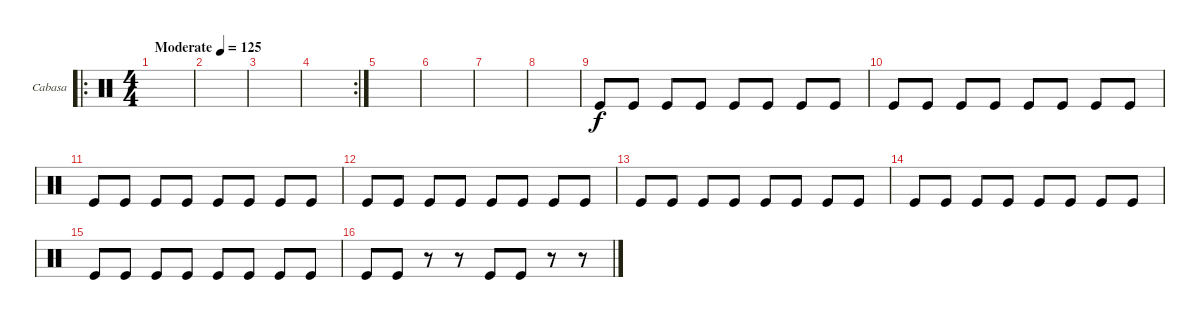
\bracketExtendMode groupsimilarinstruments
\firstSystemTrackNameOrientation horizontal
\otherSystemsTrackNameOrientation horizontal
\track ("Cabasa" "Cabasa") {instrument percussion}
\staff {score}
\articulation defaults
\ro
\ts (4 4)
\beaming (8 2 2 2 2)
\tempo (125 "Moderate")
\clef neutral
\scale
0.502222
\ks c
|
\scale
0.248889 |
\scale
0.248889 |
\rc 2
\scale
0.356322 |
\scale
0.321839 |
\scale
0.321839 |
\scale
0.333333 |
\scale
0.333333 |
\scale
0.333333 "Kick (hit)".8 "Kick (hit)".8 "Kick (hit)".8 "Kick (hit)".8 "Kick (hit)".8 "Kick (hit)".8 "Kick (hit)".8 "Kick (hit)".8 |
\scale
0.333333 "Kick (hit)".8 "Kick (hit)".8 "Kick (hit)".8 "Kick (hit)".8 "Kick (hit)".8 "Kick (hit)".8 "Kick (hit)".8 "Kick (hit)".8 |
\scale
0.333333 "Kick (hit)".8 "Kick (hit)".8 "Kick (hit)".8 "Kick (hit)".8 "Kick (hit)".8 "Kick (hit)".8 "Kick (hit)".8 "Kick (hit)".8 |
\scale
0.333333 "Kick (hit)".8 "Kick (hit)".8 "Kick (hit)".8 "Kick (hit)".8 "Kick (hit)".8 "Kick (hit)".8 "Kick (hit)".8 "Kick (hit)".8 |
\scale
0.333333 "Kick (hit)".8 "Kick (hit)".8 "Kick (hit)".8 "Kick (hit)".8 "Kick (hit)".8 "Kick (hit)".8 "Kick (hit)".8 "Kick (hit)".8 |
\scale
0.333333 "Kick (hit)".8 "Kick (hit)".8 "Kick (hit)".8 "Kick (hit)".8 "Kick (hit)".8 "Kick (hit)".8 "Kick (hit)".8 "Kick (hit)".8 |
\scale
0.333333 "Kick (hit)".8 "Kick (hit)".8 "Kick (hit)".8 "Kick (hit)".8 "Kick (hit)".8 "Kick (hit)".8 "Kick (hit)".8 "Kick (hit)".8 |
\scale
0.333333 "Kick (hit)".8 "Kick (hit)".8 r.8 r.8 "Kick (hit)".8 "Kick (hit)".8 r.8 r.8
